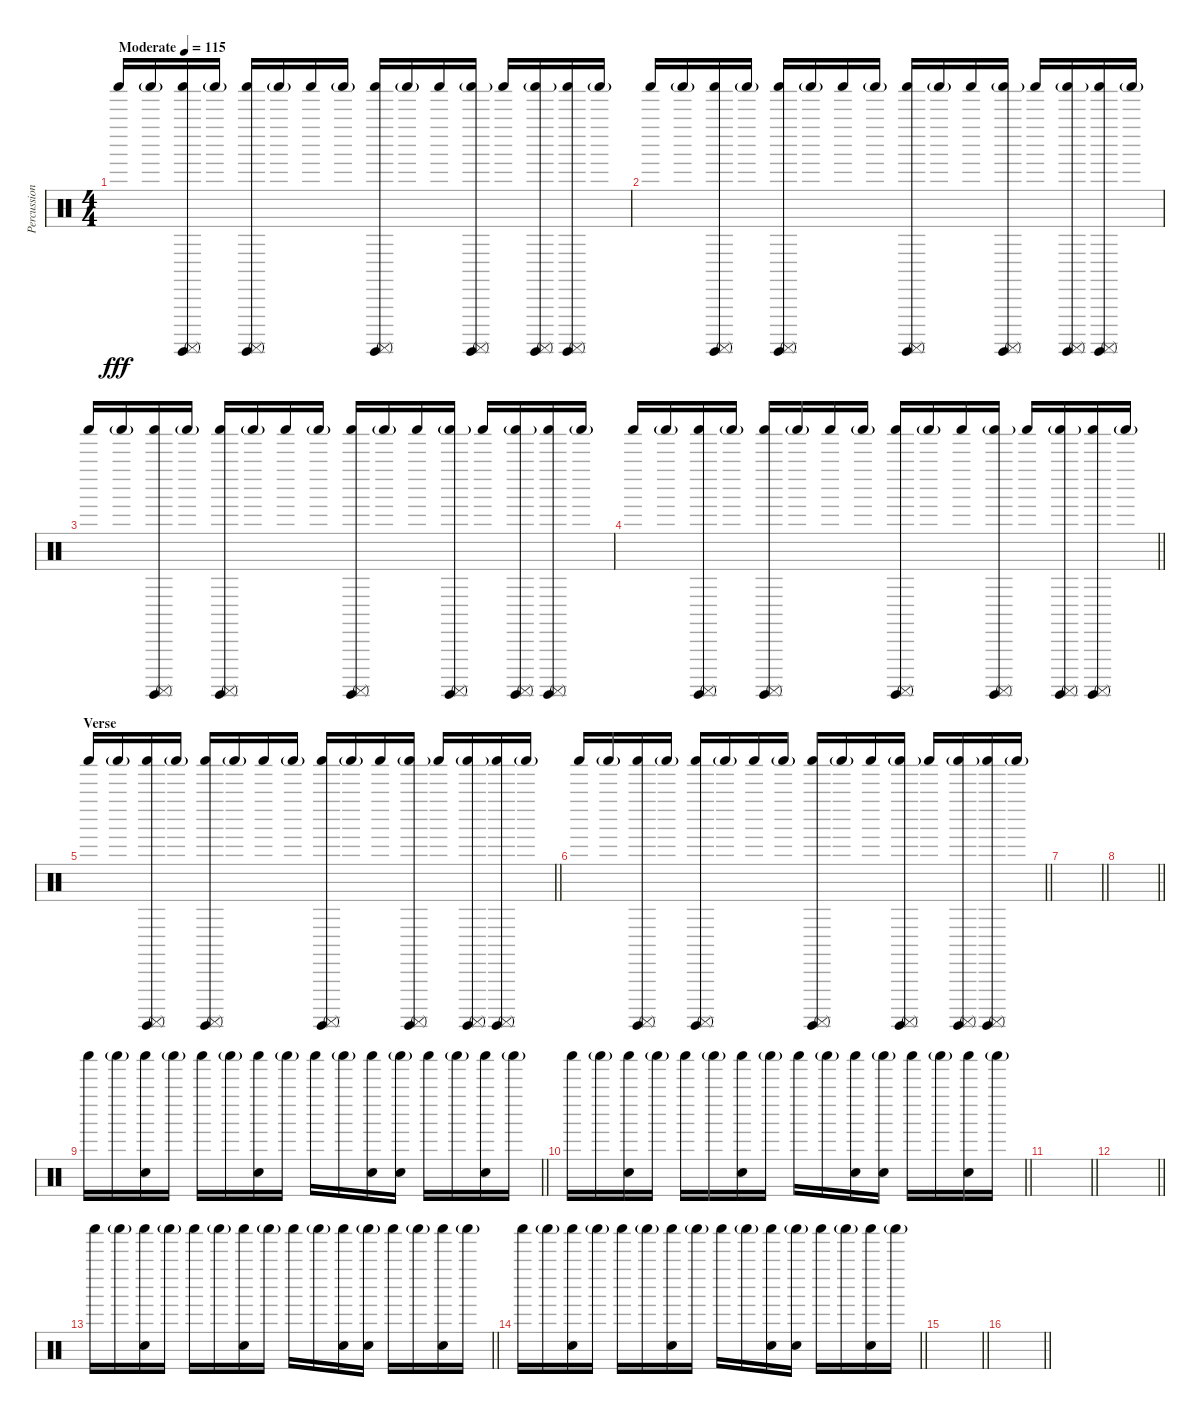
\track ("Percussion 1" "Percussion") {instrument percussion}
\staff {score}
\articulation defaults
\ts (4 4)
\tempo (115 "Moderate")
\clef neutral
\ks c "Shaker (hit)".16{dy fff} "Shaker (hit)"{g}.16
("Shaker (hit)" "Surdo (hit)" "Surdo (mute)").16 "Shaker (hit)"{g}.16 ("Shaker (hit)" "Surdo (hit)" "Surdo (mute)").16 "Shaker (hit)"{g}.16 "Shaker (hit)".16 "Shaker (hit)"{g}.16 ("Shaker (hit)" "Surdo (hit)" "Surdo (mute)").16 "Shaker (hit)"{g}.16 "Shaker (hit)".16 ("Shaker (hit)"{g} "Surdo (hit)" "Surdo (mute)").16 "Shaker (hit)".16 ("Shaker (hit)"{g} "Surdo (hit)" "Surdo (mute)").16 ("Shaker (hit)" "Surdo (hit)" "Surdo (mute)").16 "Shaker (hit)"{g}.16 |
"Shaker (hit)".16 "Shaker (hit)"{g}.16 ("Shaker (hit)" "Surdo (hit)" "Surdo (mute)").16 "Shaker (hit)"{g}.16 ("Shaker (hit)" "Surdo (hit)" "Surdo (mute)").16 "Shaker (hit)"{g}.16 "Shaker (hit)".16 "Shaker (hit)"{g}.16 ("Shaker (hit)" "Surdo (hit)" "Surdo (mute)").16 "Shaker (hit)"{g}.16 "Shaker (hit)".16 ("Shaker (hit)"{g} "Surdo (hit)" "Surdo (mute)").16 "Shaker (hit)".16 ("Shaker (hit)"{g} "Surdo (hit)" "Surdo (mute)").16 ("Shaker (hit)" "Surdo (hit)" "Surdo (mute)").16 "Shaker (hit)"{g}.16 |
"Shaker (hit)".16 "Shaker (hit)"{g}.16 ("Shaker (hit)" "Surdo (hit)" "Surdo (mute)").16 "Shaker (hit)"{g}.16 ("Shaker (hit)" "Surdo (hit)" "Surdo (mute)").16 "Shaker (hit)"{g}.16 "Shaker (hit)".16 "Shaker (hit)"{g}.16 ("Shaker (hit)" "Surdo (hit)" "Surdo (mute)").16 "Shaker (hit)"{g}.16 "Shaker (hit)".16 ("Shaker (hit)"{g} "Surdo (hit)" "Surdo (mute)").16 "Shaker (hit)".16 ("Shaker (hit)"{g} "Surdo (hit)" "Surdo (mute)").16 ("Shaker (hit)" "Surdo (hit)" "Surdo (mute)").16 "Shaker (hit)"{g}.16 |
\barLineRight lightlight "Shaker (hit)".16 "Shaker (hit)"{g}.16
("Shaker (hit)" "Surdo (hit)" "Surdo (mute)").16 "Shaker (hit)"{g}.16 ("Shaker (hit)" "Surdo (hit)" "Surdo (mute)").16 "Shaker (hit)"{g}.16 "Shaker (hit)".16 "Shaker (hit)"{g}.16 ("Shaker (hit)" "Surdo (hit)" "Surdo (mute)").16 "Shaker (hit)"{g}.16 "Shaker (hit)".16 ("Shaker (hit)"{g} "Surdo (hit)" "Surdo (mute)").16 "Shaker (hit)".16 ("Shaker (hit)"{g} "Surdo (hit)" "Surdo (mute)").16 ("Shaker (hit)" "Surdo (hit)" "Surdo (mute)").16 "Shaker (hit)"{g}.16 |
\section ("" "Verse")
\barLineRight lightlight "Shaker (hit)".16 "Shaker (hit)"{g}.16
("Shaker (hit)" "Surdo (hit)" "Surdo (mute)").16 "Shaker (hit)"{g}.16 ("Shaker (hit)" "Surdo (hit)" "Surdo (mute)").16 "Shaker (hit)"{g}.16 "Shaker (hit)".16 "Shaker (hit)"{g}.16 ("Shaker (hit)" "Surdo (hit)" "Surdo (mute)").16 "Shaker (hit)"{g}.16 "Shaker (hit)".16 ("Shaker (hit)"{g} "Surdo (hit)" "Surdo (mute)").16 "Shaker (hit)".16 ("Shaker (hit)"{g} "Surdo (hit)" "Surdo (mute)").16 ("Shaker (hit)" "Surdo (hit)" "Surdo (mute)").16 "Shaker (hit)"{g}.16 |
\barLineRight lightlight "Shaker (hit)".16 "Shaker (hit)"{g}.16
("Shaker (hit)" "Surdo (hit)" "Surdo (mute)").16 "Shaker (hit)"{g}.16 ("Shaker (hit)" "Surdo (hit)" "Surdo (mute)").16 "Shaker (hit)"{g}.16 "Shaker (hit)".16 "Shaker (hit)"{g}.16 ("Shaker (hit)" "Surdo (hit)" "Surdo (mute)").16 "Shaker (hit)"{g}.16 "Shaker (hit)".16 ("Shaker (hit)"{g} "Surdo (hit)" "Surdo (mute)").16 "Shaker (hit)".16 ("Shaker (hit)"{g} "Surdo (hit)" "Surdo (mute)").16 ("Shaker (hit)" "Surdo (hit)" "Surdo (mute)").16 "Shaker (hit)"{g}.16 |
\barLineRight lightlight
|
\barLineRight lightlight
|
\barLineRight lightlight "Shaker (hit)".16 "Shaker (hit)"{g}.16
("Shaker (hit)" "Hand Clap (hit)").16 "Shaker (hit)"{g}.16 "Shaker (hit)".16 "Shaker (hit)"{g}.16 ("Shaker (hit)" "Hand Clap (hit)").16 "Shaker (hit)"{g}.16 "Shaker (hit)".16 "Shaker (hit)"{g}.16 ("Shaker (hit)" "Hand Clap (hit)").16 ("Shaker (hit)"{g} "Hand Clap (hit)").16 "Shaker (hit)".16 "Shaker (hit)"{g}.16 ("Shaker (hit)" "Hand Clap (hit)").16 "Shaker (hit)"{g}.16 |
\barLineRight lightlight "Shaker (hit)".16 "Shaker (hit)"{g}.16
("Shaker (hit)" "Hand Clap (hit)").16 "Shaker (hit)"{g}.16 "Shaker (hit)".16 "Shaker (hit)"{g}.16 ("Shaker (hit)" "Hand Clap (hit)").16 "Shaker (hit)"{g}.16 "Shaker (hit)".16 "Shaker (hit)"{g}.16 ("Shaker (hit)" "Hand Clap (hit)").16 ("Shaker (hit)"{g} "Hand Clap (hit)").16 "Shaker (hit)".16 "Shaker (hit)"{g}.16 ("Shaker (hit)" "Hand Clap (hit)").16 "Shaker (hit)"{g}.16 |
\barLineRight lightlight
|
\barLineRight lightlight
|
\barLineRight lightlight "Shaker (hit)".16 "Shaker (hit)"{g}.16
("Shaker (hit)" "Hand Clap (hit)").16 "Shaker (hit)"{g}.16 "Shaker (hit)".16 "Shaker (hit)"{g}.16 ("Shaker (hit)" "Hand Clap (hit)").16 "Shaker (hit)"{g}.16 "Shaker (hit)".16 "Shaker (hit)"{g}.16 ("Shaker (hit)" "Hand Clap (hit)").16 ("Shaker (hit)"{g} "Hand Clap (hit)").16 "Shaker (hit)".16 "Shaker (hit)"{g}.16 ("Shaker (hit)" "Hand Clap (hit)").16 "Shaker (hit)"{g}.16 |
\barLineRight lightlight "Shaker (hit)".16 "Shaker (hit)"{g}.16
("Shaker (hit)" "Hand Clap (hit)").16 "Shaker (hit)"{g}.16 "Shaker (hit)".16 "Shaker (hit)"{g}.16 ("Shaker (hit)" "Hand Clap (hit)").16 "Shaker (hit)"{g}.16 "Shaker (hit)".16 "Shaker (hit)"{g}.16 ("Shaker (hit)" "Hand Clap (hit)").16 ("Shaker (hit)"{g} "Hand Clap (hit)").16 "Shaker (hit)".16 "Shaker (hit)"{g}.16 ("Shaker (hit)" "Hand Clap (hit)").16 "Shaker (hit)"{g}.16 |
\barLineRight lightlight
|
\barLineRight lightlight
